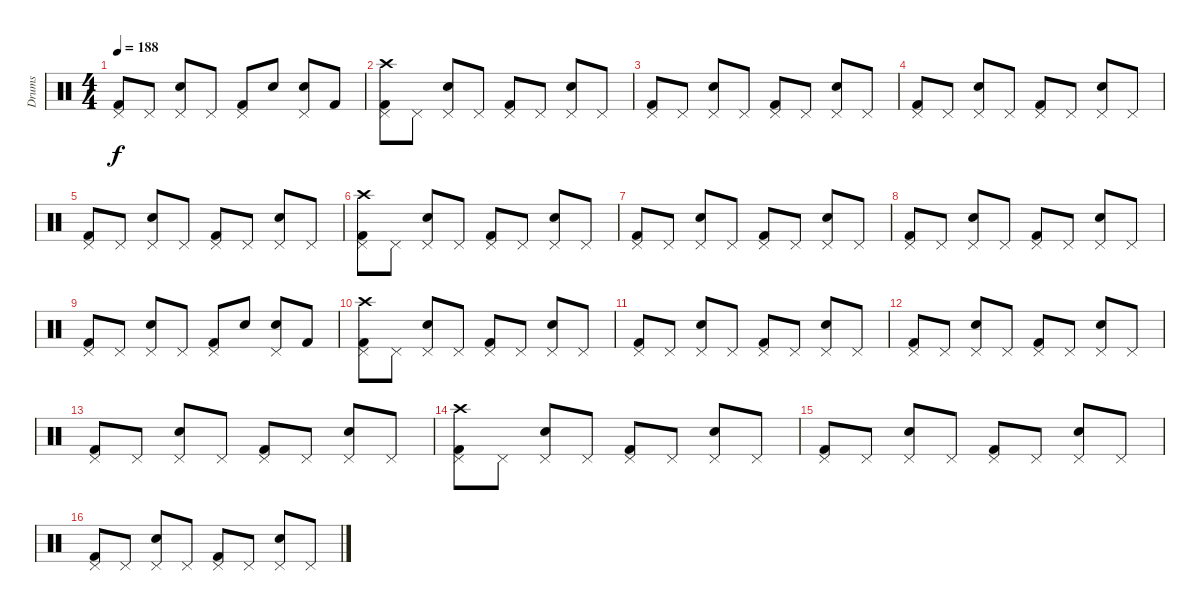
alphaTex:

\track ("Drums" "Drums") {instrument percussion}
\staff {score}
\articulation defaults
\ts (4 4)
\tempo 188
\clef neutral
\ks c
("Kick (hit) 2" "Pedal Hi-Hat (hit)").8{dy f} "Pedal Hi-Hat (hit)".8 ("Snare (hit) 2" "Pedal Hi-Hat (hit)").8 "Pedal Hi-Hat (hit)".8 ("Kick (hit) 2" "Pedal Hi-Hat (hit)").8 "Snare (hit) 2".8 ("Snare (hit) 2" "Pedal Hi-Hat (hit)").8 "Kick (hit) 2".8 |
("Kick (hit) 2" "Pedal Hi-Hat (hit)" "Crash high (hit)").8{volume 8} "Pedal Hi-Hat (hit)".8 ("Snare (hit) 2" "Pedal Hi-Hat (hit)").8 "Pedal Hi-Hat (hit)".8 ("Kick (hit) 2" "Pedal Hi-Hat (hit)").8 "Pedal Hi-Hat (hit)".8 ("Snare (hit) 2" "Pedal Hi-Hat (hit)").8 "Pedal Hi-Hat (hit)".8 |
("Kick (hit) 2" "Pedal Hi-Hat (hit)").8 "Pedal Hi-Hat (hit)".8 ("Snare (hit) 2" "Pedal Hi-Hat (hit)").8 "Pedal Hi-Hat (hit)".8 ("Kick (hit) 2" "Pedal Hi-Hat (hit)").8 "Pedal Hi-Hat (hit)".8 ("Snare (hit) 2" "Pedal Hi-Hat (hit)").8 "Pedal Hi-Hat (hit)".8 |
("Kick (hit) 2" "Pedal Hi-Hat (hit)").8{volume 7} "Pedal Hi-Hat (hit)".8 ("Snare (hit) 2" "Pedal Hi-Hat (hit)").8 "Pedal Hi-Hat (hit)".8 ("Kick (hit) 2" "Pedal Hi-Hat (hit)").8 "Pedal Hi-Hat (hit)".8 ("Snare (hit) 2" "Pedal Hi-Hat (hit)").8 "Pedal Hi-Hat (hit)".8 |
("Kick (hit) 2" "Pedal Hi-Hat (hit)").8 "Pedal Hi-Hat (hit)".8 ("Snare (hit) 2" "Pedal Hi-Hat (hit)").8 "Pedal Hi-Hat (hit)".8 ("Kick (hit) 2" "Pedal Hi-Hat (hit)").8 "Pedal Hi-Hat (hit)".8 ("Snare (hit) 2" "Pedal Hi-Hat (hit)").8 "Pedal Hi-Hat (hit)".8 |
("Kick (hit) 2" "Pedal Hi-Hat (hit)" "Crash high (hit)").8{volume 6} "Pedal Hi-Hat (hit)".8 ("Snare (hit) 2" "Pedal Hi-Hat (hit)").8 "Pedal Hi-Hat (hit)".8 ("Kick (hit) 2" "Pedal Hi-Hat (hit)").8 "Pedal Hi-Hat (hit)".8 ("Snare (hit) 2" "Pedal Hi-Hat (hit)").8 "Pedal Hi-Hat (hit)".8 |
("Kick (hit) 2" "Pedal Hi-Hat (hit)").8 "Pedal Hi-Hat (hit)".8 ("Snare (hit) 2" "Pedal Hi-Hat (hit)").8 "Pedal Hi-Hat (hit)".8 ("Kick (hit) 2" "Pedal Hi-Hat (hit)").8 "Pedal Hi-Hat (hit)".8 ("Snare (hit) 2" "Pedal Hi-Hat (hit)").8 "Pedal Hi-Hat (hit)".8 |
("Kick (hit) 2" "Pedal Hi-Hat (hit)").8{volume 5} "Pedal Hi-Hat (hit)".8 ("Snare (hit) 2" "Pedal Hi-Hat (hit)").8 "Pedal Hi-Hat (hit)".8 ("Kick (hit) 2" "Pedal Hi-Hat (hit)").8 "Pedal Hi-Hat (hit)".8 ("Snare (hit) 2" "Pedal Hi-Hat (hit)").8 "Pedal Hi-Hat (hit)".8 |
("Kick (hit) 2" "Pedal Hi-Hat (hit)").8 "Pedal Hi-Hat (hit)".8 ("Snare (hit) 2" "Pedal Hi-Hat (hit)").8 "Pedal Hi-Hat (hit)".8 ("Kick (hit) 2" "Pedal Hi-Hat (hit)").8 "Snare (hit) 2".8 ("Snare (hit) 2" "Pedal Hi-Hat (hit)").8 "Kick (hit) 2".8 |
("Kick (hit) 2" "Pedal Hi-Hat (hit)" "Crash high (hit)").8{volume 4} "Pedal Hi-Hat (hit)".8 ("Snare (hit) 2" "Pedal Hi-Hat (hit)").8 "Pedal Hi-Hat (hit)".8 ("Kick (hit) 2" "Pedal Hi-Hat (hit)").8 "Pedal Hi-Hat (hit)".8 ("Snare (hit) 2" "Pedal Hi-Hat (hit)").8 "Pedal Hi-Hat (hit)".8 |
("Kick (hit) 2" "Pedal Hi-Hat (hit)").8 "Pedal Hi-Hat (hit)".8 ("Snare (hit) 2" "Pedal Hi-Hat (hit)").8 "Pedal Hi-Hat (hit)".8 ("Kick (hit) 2" "Pedal Hi-Hat (hit)").8 "Pedal Hi-Hat (hit)".8 ("Snare (hit) 2" "Pedal Hi-Hat (hit)").8 "Pedal Hi-Hat (hit)".8 |
("Kick (hit) 2" "Pedal Hi-Hat (hit)").8{volume 3} "Pedal Hi-Hat (hit)".8 ("Snare (hit) 2" "Pedal Hi-Hat (hit)").8 "Pedal Hi-Hat (hit)".8 ("Kick (hit) 2" "Pedal Hi-Hat (hit)").8 "Pedal Hi-Hat (hit)".8 ("Snare (hit) 2" "Pedal Hi-Hat (hit)").8 "Pedal Hi-Hat (hit)".8 |
("Kick (hit) 2" "Pedal Hi-Hat (hit)").8 "Pedal Hi-Hat (hit)".8 ("Snare (hit) 2" "Pedal Hi-Hat (hit)").8 "Pedal Hi-Hat (hit)".8 ("Kick (hit) 2" "Pedal Hi-Hat (hit)").8 "Pedal Hi-Hat (hit)".8 ("Snare (hit) 2" "Pedal Hi-Hat (hit)").8 "Pedal Hi-Hat (hit)".8 |
("Kick (hit) 2" "Pedal Hi-Hat (hit)" "Crash high (hit)").8{volume 2} "Pedal Hi-Hat (hit)".8 ("Snare (hit) 2" "Pedal Hi-Hat (hit)").8 "Pedal Hi-Hat (hit)".8 ("Kick (hit) 2" "Pedal Hi-Hat (hit)").8 "Pedal Hi-Hat (hit)".8 ("Snare (hit) 2" "Pedal Hi-Hat (hit)").8 "Pedal Hi-Hat (hit)".8 |
("Kick (hit) 2" "Pedal Hi-Hat (hit)").8 "Pedal Hi-Hat (hit)".8 ("Snare (hit) 2" "Pedal Hi-Hat (hit)").8 "Pedal Hi-Hat (hit)".8 ("Kick (hit) 2" "Pedal Hi-Hat (hit)").8 "Pedal Hi-Hat (hit)".8 ("Snare (hit) 2" "Pedal Hi-Hat (hit)").8 "Pedal Hi-Hat (hit)".8 |
("Kick (hit) 2" "Pedal Hi-Hat (hit)").8{volume 1} "Pedal Hi-Hat (hit)".8 ("Snare (hit) 2" "Pedal Hi-Hat (hit)").8 "Pedal Hi-Hat (hit)".8 ("Kick (hit) 2" "Pedal Hi-Hat (hit)").8 "Pedal Hi-Hat (hit)".8 ("Snare (hit) 2" "Pedal Hi-Hat (hit)").8 "Pedal Hi-Hat (hit)".8
